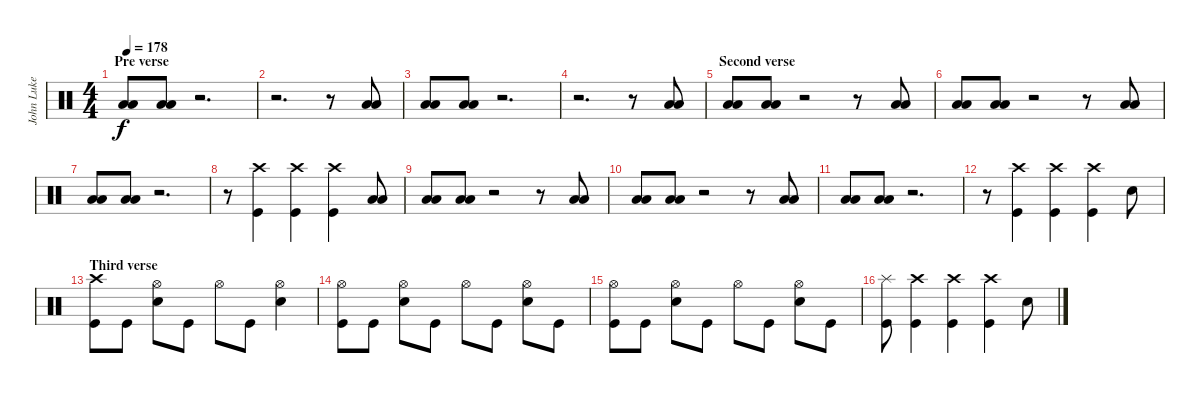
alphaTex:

\track ("John Luke (Drums)" "John Luke ") {instrument percussion}
\staff {score}
\articulation defaults
\ts (4 4)
\section ("" "Pre verse")
\tempo 178
\clef neutral
\ks c
("Low Floor Tom (hit)" "Low Floor Tom (hit)").8{bu 120 dy f} ("Low Floor Tom (hit)" "Low Floor Tom (hit)").8{bu 120} r.2{d} |
r.2{d} r.8 ("Low Floor Tom (hit)" "Low Floor Tom (hit)").8{bu 120} |
("Low Floor Tom (hit)" "Low Floor Tom (hit)").8{bu 120} ("Low Floor Tom (hit)" "Low Floor Tom (hit)").8{bu 120} r.2{d} |
r.2{d} r.8 ("Low Floor Tom (hit)" "Low Floor Tom (hit)").8{bu 120} |
\section ("" "Second verse")
("Low Floor Tom (hit)" "Low Floor Tom (hit)").8{bu 120} ("Low Floor Tom (hit)" "Low Floor Tom (hit)").8{bu 120} r.2 r.8 ("Low Floor Tom (hit)" "Low Floor Tom (hit)").8{bu 120} |
("Low Floor Tom (hit)" "Low Floor Tom (hit)").8{bu 120} ("Low Floor Tom (hit)" "Low Floor Tom (hit)").8{bu 120} r.2 r.8 ("Low Floor Tom (hit)" "Low Floor Tom (hit)").8{bu 120} |
("Low Floor Tom (hit)" "Low Floor Tom (hit)").8{bu 120} ("Low Floor Tom (hit)" "Low Floor Tom (hit)").8{bu 120} r.2{d} |
r.8 ("Crash high (hit)" "Kick (hit)").4 ("Crash high (hit)" "Kick (hit)").4 ("Crash high (hit)" "Kick (hit)").4 ("Low Floor Tom (hit)" "Low Floor Tom (hit)").8{bu 120} |
("Low Floor Tom (hit)" "Low Floor Tom (hit)").8{bu 120} ("Low Floor Tom (hit)" "Low Floor Tom (hit)").8{bu 120} r.2 r.8 ("Low Floor Tom (hit)" "Low Floor Tom (hit)").8{bu 120} |
("Low Floor Tom (hit)" "Low Floor Tom (hit)").8{bu 120} ("Low Floor Tom (hit)" "Low Floor Tom (hit)").8{bu 120} r.2 r.8 ("Low Floor Tom (hit)" "Low Floor Tom (hit)").8{bu 120} |
("Low Floor Tom (hit)" "Low Floor Tom (hit)").8{bu 120} ("Low Floor Tom (hit)" "Low Floor Tom (hit)").8{bu 120} r.2{d} |
r.8 ("Crash high (hit)" "Kick (hit)").4 ("Crash high (hit)" "Kick (hit)").4 ("Crash high (hit)" "Kick (hit)").4 "Electric Snare (hit)".8 |
\section ("" "Third verse")
("Crash high (hit)" "Kick (hit)").8 "Kick (hit)".8 ("Hi-Hat (open)" "Electric Snare (hit)").8 "Kick (hit)".8 "Hi-Hat (open)".8 "Kick (hit)".8 ("Hi-Hat (open)" "Electric Snare (hit)").4 |
("Hi-Hat (open)" "Kick (hit)").8 "Kick (hit)".8 ("Hi-Hat (open)" "Electric Snare (hit)").8 "Kick (hit)".8 "Hi-Hat (open)".8 "Kick (hit)".8 ("Hi-Hat (open)" "Electric Snare (hit)").8 "Kick (hit)".8 |
("Hi-Hat (open)" "Kick (hit)").8 "Kick (hit)".8 ("Hi-Hat (open)" "Electric Snare (hit)").8 "Kick (hit)".8 "Hi-Hat (open)".8 "Kick (hit)".8 ("Hi-Hat (open)" "Electric Snare (hit)").8 "Kick (hit)".8 |
("Splash (hit)" "Kick (hit)").8 ("Crash high (hit)" "Kick (hit)").4 ("Crash high (hit)" "Kick (hit)").4 ("Crash high (hit)" "Kick (hit)").4 "Electric Snare (hit)".8
